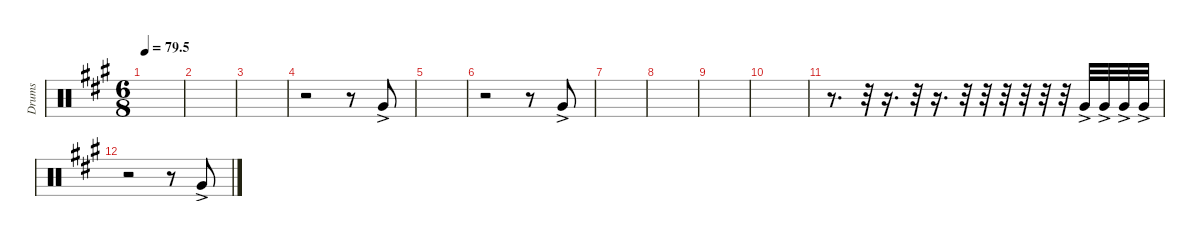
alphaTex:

\defaultSystemsLayout 4
\hideDynamics
\bracketExtendMode nobrackets
\otherSystemsTrackNameOrientation horizontal
\track ("Tom 04" "Drums") {instrument percussion}
\staff {score}
\articulation defaults
\ts (6 8)
\tempo
79.5
\accidentals auto
\clef neutral
\ottava regular
\simile none
\scale
0.333333
\ks a
|
\scale
0.333333 |
\scale
0.333333 |
\scale
0.333333 r.2 r.8 "Very Low Tom (hit)"{ac acc forcenatural}.8 |
\scale
0.333333 |
\scale
0.333333 r.2 r.8 "Very Low Tom (hit)"{ac acc forcenatural}.8 |
\scale
0.333333 |
\scale
0.333333 |
\scale
0.333333 |
\scale
0.333333 |
\scale
0.333333 r.8{d} r.32 r.16{d} r.32 r.16{d} r.32 r.32 r.32 r.32 r.32 r.32 "Very Low Tom (hit)"{ac acc forcenatural}.32 "Very Low Tom (hit)"{ac acc forcenatural}.32 "Very Low Tom (hit)"{ac acc forcenatural}.32 "Very Low Tom (hit)"{ac acc forcenatural}.32 |
\scale
0.333333 r.2 r.8 "Very Low Tom (hit)"{ac acc forcenatural}.8 |
\scale
0.333333 |
\scale
0.333333 |
\scale
0.333333 |
\scale
0.333333
